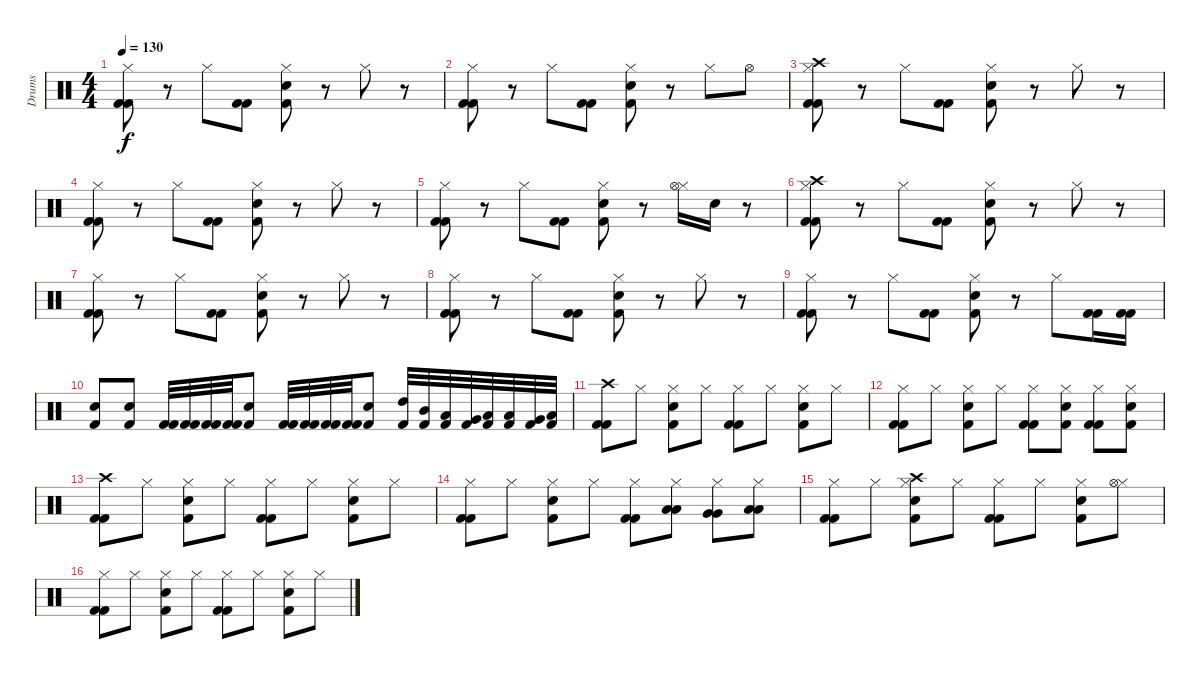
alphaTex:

\track ("Drums" "Drums") {instrument percussion}
\staff {score}
\articulation defaults
\ts (4 4)
\tempo 130
\clef neutral
\ks c
("Hi-Hat (closed)" "Kick (hit) 2" "Kick (hit) 2").8{dy f} r.8 "Hi-Hat (closed)".8 ("Kick (hit) 2" "Kick (hit) 2").8 ("Hi-Hat (closed)" "Kick (hit) 2" "Snare (hit) 2").8 r.8 "Hi-Hat (closed)".8 r.8 |
("Hi-Hat (closed)" "Kick (hit) 2" "Kick (hit) 2").8 r.8 "Hi-Hat (closed)".8 ("Kick (hit) 2" "Kick (hit) 2").8 ("Hi-Hat (closed)" "Kick (hit) 2" "Snare (hit) 2").8 r.8 "Hi-Hat (closed)".8 "Hi-Hat (open)".8 |
("Hi-Hat (closed)" "Kick (hit) 2" "Kick (hit) 2" "Crash high (hit)").8 r.8 "Hi-Hat (closed)".8 ("Kick (hit) 2" "Kick (hit) 2").8 ("Hi-Hat (closed)" "Kick (hit) 2" "Snare (hit) 2").8 r.8 "Hi-Hat (closed)".8 r.8 |
("Hi-Hat (closed)" "Kick (hit) 2" "Kick (hit) 2").8 r.8 "Hi-Hat (closed)".8 ("Kick (hit) 2" "Kick (hit) 2").8 ("Hi-Hat (closed)" "Kick (hit) 2" "Snare (hit) 2").8 r.8 "Hi-Hat (closed)".8 r.8 |
("Hi-Hat (closed)" "Kick (hit) 2" "Kick (hit) 2").8 r.8 "Hi-Hat (closed)".8 ("Kick (hit) 2" "Kick (hit) 2").8 ("Hi-Hat (closed)" "Kick (hit) 2" "Snare (hit) 2").8 r.8 ("Hi-Hat (closed)" "Hi-Hat (open)").16 "Snare (hit)"{x}.16 r.8 |
("Hi-Hat (closed)" "Kick (hit) 2" "Kick (hit) 2" "Crash high (hit)").8 r.8 "Hi-Hat (closed)".8 ("Kick (hit) 2" "Kick (hit) 2").8 ("Hi-Hat (closed)" "Kick (hit) 2" "Snare (hit) 2").8 r.8 "Hi-Hat (closed)".8 r.8 |
("Hi-Hat (closed)" "Kick (hit) 2" "Kick (hit) 2").8 r.8 "Hi-Hat (closed)".8 ("Kick (hit) 2" "Kick (hit) 2").8 ("Hi-Hat (closed)" "Kick (hit) 2" "Snare (hit) 2").8 r.8 "Hi-Hat (closed)".8 r.8 |
("Hi-Hat (closed)" "Kick (hit) 2" "Kick (hit) 2").8 r.8 "Hi-Hat (closed)".8 ("Kick (hit) 2" "Kick (hit) 2").8 ("Hi-Hat (closed)" "Kick (hit) 2" "Snare (hit) 2").8 r.8 "Hi-Hat (closed)".8 r.8 |
("Hi-Hat (closed)" "Kick (hit) 2" "Kick (hit) 2").8 r.8 "Hi-Hat (closed)".8 ("Kick (hit) 2" "Kick (hit) 2").8 ("Hi-Hat (closed)" "Kick (hit) 2" "Snare (hit) 2").8 r.8 "Hi-Hat (closed)".8 ("Kick (hit) 2" "Kick (hit) 2").16 ("Kick (hit) 2" "Kick (hit) 2").16 |
("Snare (hit) 2" "Kick (hit) 2").8 ("Snare (hit) 2" "Kick (hit) 2").8 ("Kick (hit) 2" "Kick (hit) 2").32 ("Kick (hit) 2" "Kick (hit) 2").32 ("Kick (hit) 2" "Kick (hit) 2").32 ("Kick (hit) 2" "Kick (hit) 2").32 ("Kick (hit) 2" "Snare (hit) 2").8 ("Kick (hit) 2" "Kick (hit) 2").32 ("Kick (hit) 2" "Kick (hit) 2").32 ("Kick (hit) 2" "Kick (hit) 2").32 ("Kick (hit) 2" "Kick (hit) 2").32 ("Kick (hit) 2" "Snare (hit) 2").8 ("Kick (hit) 2" "High Tom (hit)").32 ("Kick (hit) 2" "Mid Tom (hit)").32 ("Kick (hit) 2" "Low Tom (hit)").32 ("Kick (hit) 2" "Very Low Tom (hit)").32 ("Kick (hit) 2" "Low Floor Tom (hit)").32 ("Kick (hit) 2" "Low Tom (hit)").32 ("Kick (hit) 2" "Very Low Tom (hit)").32 ("Kick (hit) 2" "Low Floor Tom (hit)").32 |
("Crash high (hit)" "Kick (hit) 2" "Kick (hit) 2").8 "Hi-Hat (closed)".8 ("Hi-Hat (closed)" "Snare (hit) 2" "Kick (hit) 2").8 "Hi-Hat (closed)".8 ("Hi-Hat (closed)" "Kick (hit) 2" "Kick (hit) 2").8 "Hi-Hat (closed)".8 ("Hi-Hat (closed)" "Kick (hit) 2" "Snare (hit) 2").8 "Hi-Hat (closed)".8 |
("Hi-Hat (closed)" "Kick (hit) 2" "Kick (hit) 2").8 "Hi-Hat (closed)".8 ("Hi-Hat (closed)" "Snare (hit) 2" "Kick (hit) 2").8 "Hi-Hat (closed)".8 ("Hi-Hat (closed)" "Kick (hit) 2" "Kick (hit) 2").8 ("Hi-Hat (closed)" "Kick (hit) 2" "Snare (hit) 2").8 ("Hi-Hat (closed)" "Kick (hit) 2" "Kick (hit) 2").8 ("Hi-Hat (closed)" "Kick (hit) 2" "Snare (hit) 2").8 |
("Crash high (hit)" "Kick (hit) 2" "Kick (hit) 2").8 "Hi-Hat (closed)".8 ("Hi-Hat (closed)" "Snare (hit) 2" "Kick (hit) 2").8 "Hi-Hat (closed)".8 ("Hi-Hat (closed)" "Kick (hit) 2" "Kick (hit) 2").8 "Hi-Hat (closed)".8 ("Hi-Hat (closed)" "Kick (hit) 2" "Snare (hit) 2").8 "Hi-Hat (closed)".8 |
("Hi-Hat (closed)" "Kick (hit) 2" "Kick (hit) 2").8 "Hi-Hat (closed)".8 ("Hi-Hat (closed)" "Snare (hit) 2" "Kick (hit) 2").8 "Hi-Hat (closed)".8 ("Hi-Hat (closed)" "Kick (hit) 2" "Kick (hit) 2").8 ("Hi-Hat (closed)" "Low Tom (hit)" "Low Tom (hit)").8 ("Hi-Hat (closed)" "Very Low Tom (hit)" "Very Low Tom (hit)").8 ("Hi-Hat (closed)" "Low Floor Tom (hit)" "Low Floor Tom (hit)").8 |
("Hi-Hat (closed)" "Kick (hit) 2" "Kick (hit) 2").8 "Hi-Hat (closed)".8 ("Hi-Hat (closed)" "Snare (hit) 2" "Kick (hit) 2" "Crash high (hit)").8 "Hi-Hat (closed)".8 ("Hi-Hat (closed)" "Kick (hit) 2" "Kick (hit) 2").8 "Hi-Hat (closed)".8 ("Hi-Hat (closed)" "Kick (hit) 2" "Snare (hit) 2").8 ("Hi-Hat (closed)" "Hi-Hat (open)").8 |
("Hi-Hat (closed)" "Kick (hit) 2" "Kick (hit) 2").8 "Hi-Hat (closed)".8 ("Hi-Hat (closed)" "Snare (hit) 2" "Kick (hit) 2").8 "Hi-Hat (closed)".8 ("Hi-Hat (closed)" "Kick (hit) 2" "Kick (hit) 2").8 "Hi-Hat (closed)".8 ("Hi-Hat (closed)" "Kick (hit) 2" "Snare (hit) 2").8 "Hi-Hat (closed)".8
